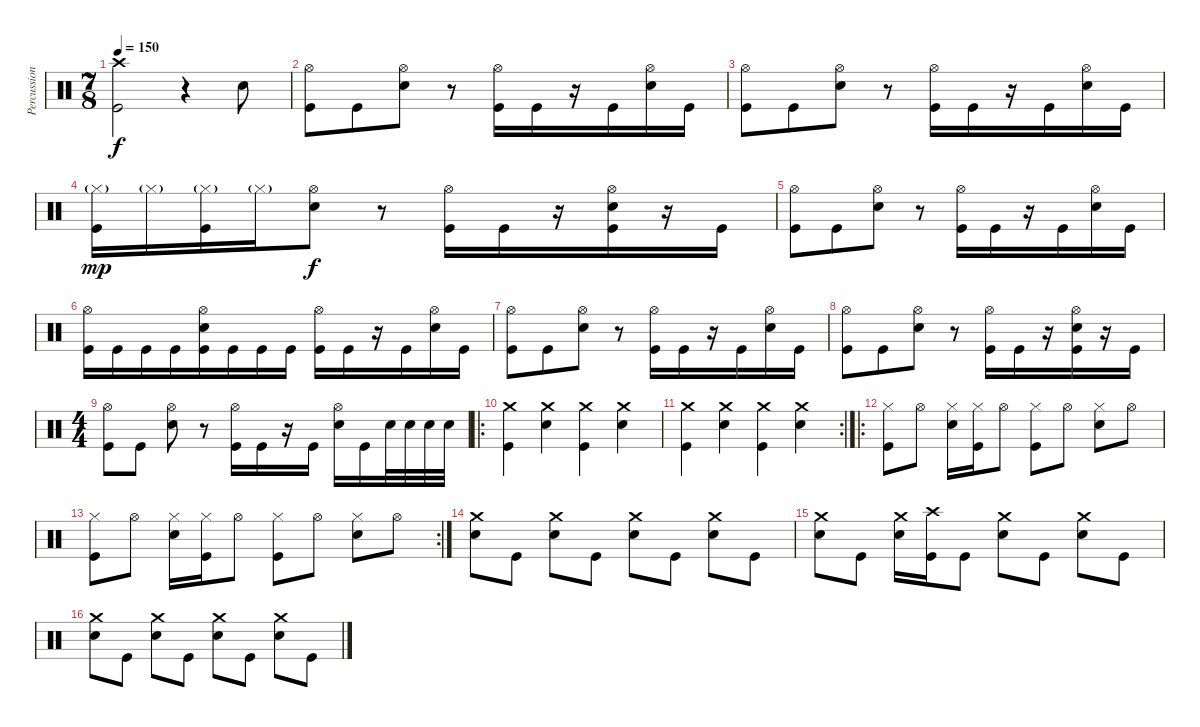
\track ("Percussion" "Percussion") {instrument percussion}
\staff {score}
\articulation defaults
\ts (7 8)
\tempo 150
\clef neutral
\ks c
("Crash high (hit)" "Kick (hit)").2{dy f} r.4 "Snare (hit) 2".8 |
("Hi-Hat (open)" "Kick (hit)").8 "Kick (hit)".8 ("Hi-Hat (open)" "Snare (hit) 2").8 r.8 ("Hi-Hat (open)" "Kick (hit)").16 "Kick (hit)".16 r.16 "Kick (hit)".16 ("Hi-Hat (open)" "Snare (hit) 2").16 "Kick (hit)".16 |
("Hi-Hat (open)" "Kick (hit)").8 "Kick (hit)".8 ("Hi-Hat (open)" "Snare (hit) 2").8 r.8 ("Hi-Hat (open)" "Kick (hit)").16 "Kick (hit)".16 r.16 "Kick (hit)".16 ("Hi-Hat (open)" "Snare (hit) 2").16 "Kick (hit)".16 |
("Hi-Hat (closed)"{g} "Kick (hit)").16{dy mp} "Hi-Hat (closed)"{g}.16 ("Hi-Hat (closed)"{g} "Kick (hit)").16 "Hi-Hat (closed)"{g}.16 ("Hi-Hat (open)" "Snare (hit) 2").8{dy f} r.8 ("Hi-Hat (open)" "Kick (hit)").16 "Kick (hit)".16 r.16 ("Hi-Hat (open)" "Snare (hit) 2" "Kick (hit)").16 r.16 "Kick (hit)".16 |
("Hi-Hat (open)" "Kick (hit)").8 "Kick (hit)".8 ("Hi-Hat (open)" "Snare (hit) 2").8 r.8 ("Hi-Hat (open)" "Kick (hit)").16 "Kick (hit)".16 r.16 "Kick (hit)".16 ("Hi-Hat (open)" "Snare (hit) 2").16 "Kick (hit)".16 |
("Hi-Hat (open)" "Kick (hit)").16 "Kick (hit)".16 "Kick (hit)".16 "Kick (hit)".16 ("Hi-Hat (open)" "Snare (hit) 2" "Kick (hit)").16 "Kick (hit)".16 "Kick (hit)".16 "Kick (hit)".16 ("Hi-Hat (open)" "Kick (hit)").16 "Kick (hit)".16 r.16 "Kick (hit)".16 ("Hi-Hat (open)" "Snare (hit) 2").16 "Kick (hit)".16 |
("Hi-Hat (open)" "Kick (hit)").8 "Kick (hit)".8 ("Hi-Hat (open)" "Snare (hit) 2").8 r.8 ("Hi-Hat (open)" "Kick (hit)").16 "Kick (hit)".16 r.16 "Kick (hit)".16 ("Hi-Hat (open)" "Snare (hit) 2").16 "Kick (hit)".16 |
("Hi-Hat (open)" "Kick (hit)").8 "Kick (hit)".8 ("Hi-Hat (open)" "Snare (hit) 2").8 r.8 ("Hi-Hat (open)" "Kick (hit)").16 "Kick (hit)".16 r.16 ("Hi-Hat (open)" "Snare (hit) 2" "Kick (hit)").16 r.16 "Kick (hit)".16 |
\ts (4 4)
("Hi-Hat (open)" "Kick (hit)").8 "Kick (hit)".8 ("Hi-Hat (open)" "Snare (hit) 2").8 r.8 ("Hi-Hat (open)" "Kick (hit)").16 "Kick (hit)".16 r.16 "Kick (hit)".16 ("Hi-Hat (open)" "Snare (hit) 2").16 "Kick (hit)".16 "Snare (hit) 2".32 "Snare (hit) 2".32 "Snare (hit) 2".32 "Snare (hit) 2".32 |
\ro
("Crash medium (hit)" "Kick (hit)").4 ("Crash medium (hit)" "Snare (hit) 2").4 ("Crash medium (hit)" "Kick (hit)").4 ("Crash medium (hit)" "Snare (hit) 2").4 |
\rc 2
("Crash medium (hit)" "Kick (hit)").4 ("Crash medium (hit)" "Snare (hit) 2").4 ("Crash medium (hit)" "Kick (hit)").4 ("Crash medium (hit)" "Snare (hit) 2").4 |
\ro
("Hi-Hat (closed)" "Kick (hit)").8 "Hi-Hat (open)".8 ("Hi-Hat (closed)" "Snare (hit) 2").16 ("Hi-Hat (closed)" "Kick (hit)").16 "Hi-Hat (open)".8 ("Hi-Hat (closed)" "Kick (hit)").8 "Hi-Hat (open)".8 ("Hi-Hat (closed)" "Snare (hit) 2").8 "Hi-Hat (open)".8 |
\rc 2
("Hi-Hat (closed)" "Kick (hit)").8 "Hi-Hat (open)".8 ("Hi-Hat (closed)" "Snare (hit) 2").16 ("Hi-Hat (closed)" "Kick (hit)").16 "Hi-Hat (open)".8 ("Hi-Hat (closed)" "Kick (hit)").8 "Hi-Hat (open)".8 ("Hi-Hat (closed)" "Snare (hit) 2").8 "Hi-Hat (open)".8 |
("Crash medium (hit)" "Snare (hit) 2").8 "Kick (hit)".8 ("Crash medium (hit)" "Snare (hit) 2").8 "Kick (hit)".8 ("Crash medium (hit)" "Snare (hit) 2").8 "Kick (hit)".8 ("Crash medium (hit)" "Snare (hit) 2").8 "Kick (hit)".8 |
("Crash medium (hit)" "Snare (hit) 2").8 "Kick (hit)".8 ("Crash medium (hit)" "Snare (hit) 2").16 ("Crash high (hit)" "Kick (hit)").16 "Kick (hit)".8 ("Crash medium (hit)" "Snare (hit) 2").8 "Kick (hit)".8 ("Crash medium (hit)" "Snare (hit) 2").8 "Kick (hit)".8 |
("Crash medium (hit)" "Snare (hit) 2").8 "Kick (hit)".8 ("Crash medium (hit)" "Snare (hit) 2").8 "Kick (hit)".8 ("Crash medium (hit)" "Snare (hit) 2").8 "Kick (hit)".8 ("Crash medium (hit)" "Snare (hit) 2").8 "Kick (hit)".8
